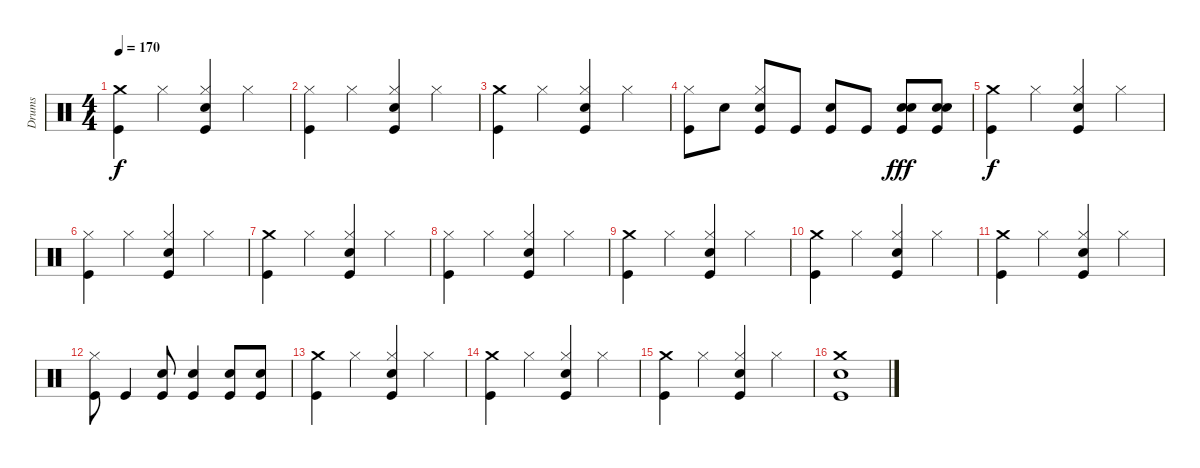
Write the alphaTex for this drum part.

\track ("Drums" "Drums") {instrument percussion}
\staff {score}
\articulation defaults
\ts (4 4)
\tempo 170
\clef neutral
\ks c
("Crash medium (hit)" "Kick (hit)").4{dy f} "Hi-Hat (closed)".4 ("Snare (hit) 2" "Hi-Hat (closed)" "Kick (hit)").4 "Hi-Hat (closed)".4 |
("Hi-Hat (closed)" "Kick (hit)").4 "Hi-Hat (closed)".4 ("Snare (hit) 2" "Hi-Hat (closed)" "Kick (hit)").4 "Hi-Hat (closed)".4 |
("Crash medium (hit)" "Kick (hit)").4 "Hi-Hat (closed)".4 ("Snare (hit) 2" "Hi-Hat (closed)" "Kick (hit)").4 "Hi-Hat (closed)".4 |
("Hi-Hat (closed)" "Kick (hit)").8 "Snare (hit) 2".8 ("Snare (hit) 2" "Hi-Hat (closed)" "Kick (hit)").8 "Kick (hit)".8 ("Snare (hit) 2" "Kick (hit)").8 "Kick (hit)".8 ("Electric Snare (hit)" "Snare (hit) 2" "Kick (hit)").8{dy fff} ("Electric Snare (hit)" "Snare (hit) 2" "Kick (hit)").8 |
("Crash medium (hit)" "Kick (hit)").4{dy f} "Hi-Hat (closed)".4 ("Snare (hit) 2" "Hi-Hat (closed)" "Kick (hit)").4 "Hi-Hat (closed)".4 |
("Hi-Hat (closed)" "Kick (hit)").4 "Hi-Hat (closed)".4 ("Snare (hit) 2" "Hi-Hat (closed)" "Kick (hit)").4 "Hi-Hat (closed)".4 |
("Crash medium (hit)" "Kick (hit)").4 "Hi-Hat (closed)".4 ("Snare (hit) 2" "Hi-Hat (closed)" "Kick (hit)").4 "Hi-Hat (closed)".4 |
("Hi-Hat (closed)" "Kick (hit)").4 "Hi-Hat (closed)".4 ("Snare (hit) 2" "Hi-Hat (closed)" "Kick (hit)").4 "Hi-Hat (closed)".4 |
("Crash medium (hit)" "Kick (hit)").4 "Hi-Hat (closed)".4 ("Snare (hit) 2" "Hi-Hat (closed)" "Kick (hit)").4 "Hi-Hat (closed)".4 |
("Crash medium (hit)" "Kick (hit)").4 "Hi-Hat (closed)".4 ("Snare (hit) 2" "Hi-Hat (closed)" "Kick (hit)").4 "Hi-Hat (closed)".4 |
("Crash medium (hit)" "Kick (hit)").4 "Hi-Hat (closed)".4 ("Snare (hit) 2" "Hi-Hat (closed)" "Kick (hit)").4 "Hi-Hat (closed)".4 |
("Hi-Hat (closed)" "Kick (hit)").8 "Kick (hit)".4 ("Electric Snare (hit)" "Kick (hit)").8 ("Snare (hit) 2" "Kick (hit)").4 ("Electric Snare (hit)" "Kick (hit)").8 ("Electric Snare (hit)" "Kick (hit)").8 |
("Crash medium (hit)" "Kick (hit)").4 "Hi-Hat (closed)".4 ("Snare (hit) 2" "Hi-Hat (closed)" "Kick (hit)").4 "Hi-Hat (closed)".4 |
("Crash medium (hit)" "Kick (hit)").4 "Hi-Hat (closed)".4 ("Snare (hit) 2" "Hi-Hat (closed)" "Kick (hit)").4 "Hi-Hat (closed)".4 |
("Crash medium (hit)" "Kick (hit)").4 "Hi-Hat (closed)".4 ("Snare (hit) 2" "Hi-Hat (closed)" "Kick (hit)").4 "Hi-Hat (closed)".4 |
("Crash medium (hit)" "Snare (hit) 2" "Kick (hit)").1
